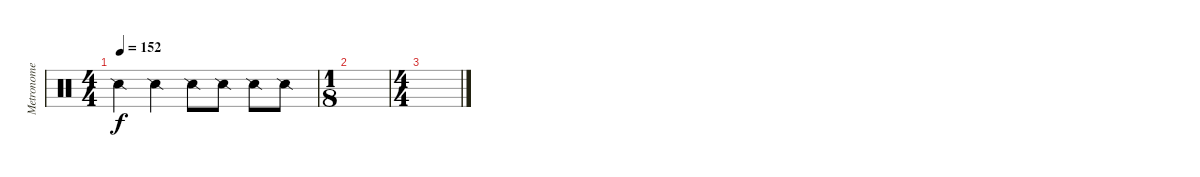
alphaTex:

\track ("Metronome" "Metronome") {instrument percussion}
\staff {score}
\articulation defaults
\ts (4 4)
\tempo 152
\clef neutral
\ks c "Snare (side stick) 2".4{dy f} "Snare (side stick) 2".4 "Snare (side stick) 2".8 "Snare (side stick) 2".8 "Snare (side stick) 2".8 "Snare (side stick) 2".8
|
\ts (1 8)
|
\ts (4 4)
